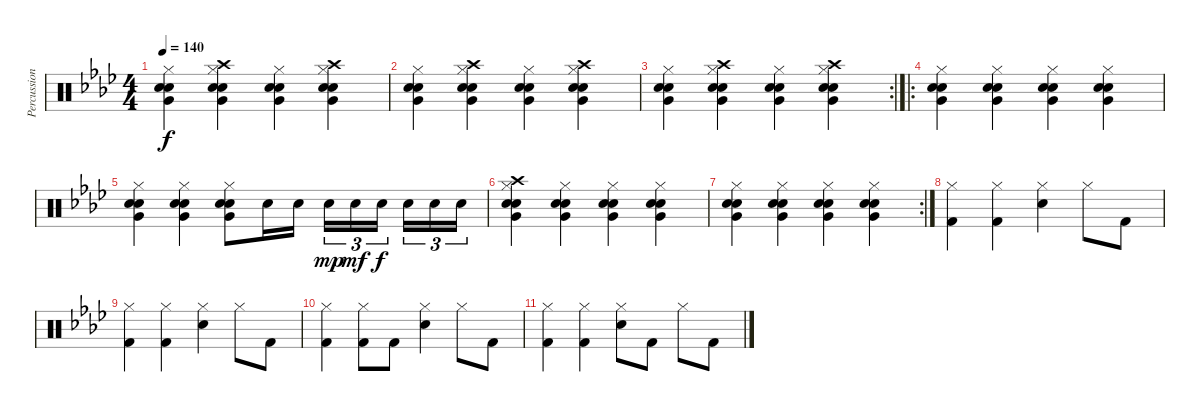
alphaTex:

\track ("Percussion" "Percussion") {instrument percussion}
\staff {score}
\articulation defaults
\ts (4 4)
\tempo 140
\clef neutral
\ks fminor
("Electric Snare (hit)" "Very Low Tom (hit)" "Hand Clap (hit)" "Hi-Hat (closed)").4{dy f} ("Electric Snare (hit)" "Very Low Tom (hit)" "Hand Clap (hit)" "Hi-Hat (closed)" "Crash high (hit)").4 ("Electric Snare (hit)" "Very Low Tom (hit)" "Hand Clap (hit)" "Hi-Hat (closed)").4 ("Electric Snare (hit)" "Very Low Tom (hit)" "Hand Clap (hit)" "Hi-Hat (closed)" "Crash high (hit)").4 |
("Electric Snare (hit)" "Very Low Tom (hit)" "Hand Clap (hit)" "Hi-Hat (closed)").4 ("Electric Snare (hit)" "Very Low Tom (hit)" "Hand Clap (hit)" "Hi-Hat (closed)" "Crash high (hit)").4 ("Electric Snare (hit)" "Very Low Tom (hit)" "Hand Clap (hit)" "Hi-Hat (closed)").4 ("Electric Snare (hit)" "Very Low Tom (hit)" "Hand Clap (hit)" "Hi-Hat (closed)" "Crash high (hit)").4 |
\rc 2
("Electric Snare (hit)" "Very Low Tom (hit)" "Hand Clap (hit)" "Hi-Hat (closed)").4 ("Electric Snare (hit)" "Very Low Tom (hit)" "Hand Clap (hit)" "Hi-Hat (closed)" "Crash high (hit)").4 ("Electric Snare (hit)" "Very Low Tom (hit)" "Hand Clap (hit)" "Hi-Hat (closed)").4 ("Electric Snare (hit)" "Very Low Tom (hit)" "Hand Clap (hit)" "Hi-Hat (closed)" "Crash high (hit)").4 |
\ro
("Electric Snare (hit)" "Very Low Tom (hit)" "Hand Clap (hit)" "Hi-Hat (closed)").4 ("Electric Snare (hit)" "Very Low Tom (hit)" "Hand Clap (hit)" "Hi-Hat (closed)").4 ("Electric Snare (hit)" "Very Low Tom (hit)" "Hand Clap (hit)" "Hi-Hat (closed)").4 ("Electric Snare (hit)" "Very Low Tom (hit)" "Hand Clap (hit)" "Hi-Hat (closed)").4 |
("Electric Snare (hit)" "Very Low Tom (hit)" "Hand Clap (hit)" "Hi-Hat (closed)").4 ("Electric Snare (hit)" "Very Low Tom (hit)" "Hand Clap (hit)" "Hi-Hat (closed)").4 ("Electric Snare (hit)" "Very Low Tom (hit)" "Hand Clap (hit)" "Hi-Hat (closed)").8 "Electric Snare (hit)".16 "Electric Snare (hit)".16 "Electric Snare (hit)".16{tu (3 2) dy mp} "Electric Snare (hit)".16{tu (3 2) dy mf} "Electric Snare (hit)".16{tu (3 2) dy f} "Electric Snare (hit)".16{tu (3 2)} "Electric Snare (hit)".16{tu (3 2)} "Electric Snare (hit)".16{tu (3 2)} |
("Electric Snare (hit)" "Very Low Tom (hit)" "Hand Clap (hit)" "Hi-Hat (closed)" "Crash high (hit)").4 ("Electric Snare (hit)" "Very Low Tom (hit)" "Hand Clap (hit)" "Hi-Hat (closed)").4 ("Electric Snare (hit)" "Very Low Tom (hit)" "Hand Clap (hit)" "Hi-Hat (closed)").4 ("Electric Snare (hit)" "Very Low Tom (hit)" "Hand Clap (hit)" "Hi-Hat (closed)").4 |
\rc 2
("Electric Snare (hit)" "Very Low Tom (hit)" "Hand Clap (hit)" "Hi-Hat (closed)").4 ("Electric Snare (hit)" "Very Low Tom (hit)" "Hand Clap (hit)" "Hi-Hat (closed)").4 ("Electric Snare (hit)" "Very Low Tom (hit)" "Hand Clap (hit)" "Hi-Hat (closed)").4 ("Electric Snare (hit)" "Very Low Tom (hit)" "Hand Clap (hit)" "Hi-Hat (closed)").4 |
("Hi-Hat (closed)" "Kick (hit) 2").4{volume 0} ("Hi-Hat (closed)" "Kick (hit) 2").4 ("Hi-Hat (closed)" "Electric Snare (hit)").4 "Hi-Hat (closed)".8 "Kick (hit) 2".8 |
("Hi-Hat (closed)" "Kick (hit) 2").4 ("Hi-Hat (closed)" "Kick (hit) 2").4 ("Hi-Hat (closed)" "Electric Snare (hit)").4 "Hi-Hat (closed)".8 "Kick (hit) 2".8 |
("Hi-Hat (closed)" "Kick (hit) 2").4 ("Hi-Hat (closed)" "Kick (hit) 2").8 "Kick (hit) 2".8 ("Hi-Hat (closed)" "Electric Snare (hit)").4 "Hi-Hat (closed)".8 "Kick (hit) 2".8 |
("Hi-Hat (closed)" "Kick (hit) 2").4 ("Hi-Hat (closed)" "Kick (hit) 2").4 ("Hi-Hat (closed)" "Electric Snare (hit)").8 "Kick (hit) 2".8 "Hi-Hat (closed)".8 "Kick (hit) 2".8
